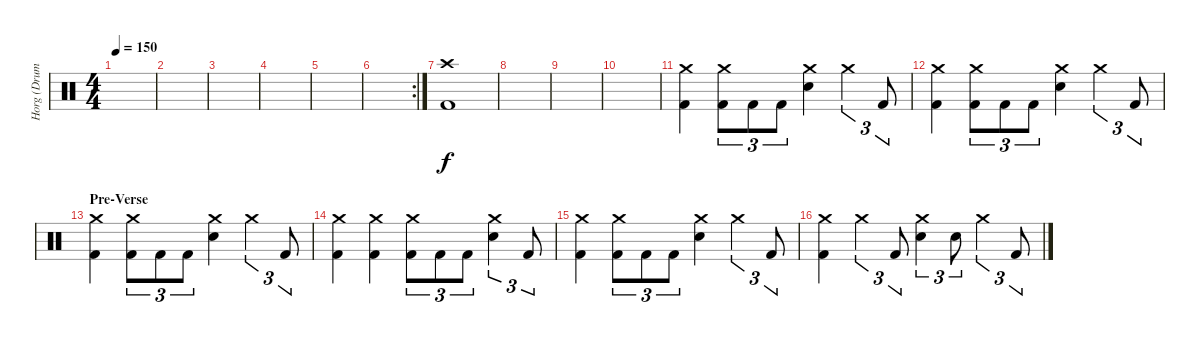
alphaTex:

\track ("Horg (Drums)" "Horg (Drum") {instrument percussion}
\staff {score}
\articulation defaults
\ts (4 4)
\tempo 150
\clef neutral
\ks c
|
|
|
|
|
\rc 2
|
("Crash high (hit)" "Kick (hit) 2").1 |
|
|
|
("Crash medium (hit)" "Kick (hit) 2").4 ("Crash medium (hit)" "Kick (hit) 2").8{tu (3 2)} "Kick (hit) 2".8{tu (3 2)} "Kick (hit) 2".8{tu (3 2)} ("Crash medium (hit)" "Electric Snare (hit)").4 "Crash medium (hit)".4{tu (3 2)} "Kick (hit) 2".8{tu (3 2)} |
("Crash medium (hit)" "Kick (hit) 2").4 ("Crash medium (hit)" "Kick (hit) 2").8{tu (3 2)} "Kick (hit) 2".8{tu (3 2)} "Kick (hit) 2".8{tu (3 2)} ("Crash medium (hit)" "Electric Snare (hit)").4 "Crash medium (hit)".4{tu (3 2)} "Kick (hit) 2".8{tu (3 2)} |
\section ("" "Pre-Verse")
("Crash medium (hit)" "Kick (hit) 2").4 ("Crash medium (hit)" "Kick (hit) 2").8{tu (3 2)} "Kick (hit) 2".8{tu (3 2)} "Kick (hit) 2".8{tu (3 2)} ("Crash medium (hit)" "Electric Snare (hit)").4 "Crash medium (hit)".4{tu (3 2)} "Kick (hit) 2".8{tu (3 2)} |
("Crash medium (hit)" "Kick (hit) 2").4 ("Crash medium (hit)" "Kick (hit) 2").4 ("Crash medium (hit)" "Kick (hit) 2").8{tu (3 2)} "Kick (hit) 2".8{tu (3 2)} "Kick (hit) 2".8{tu (3 2)} ("Crash medium (hit)" "Electric Snare (hit)").4{tu (3 2)} "Kick (hit) 2".8{tu (3 2)} |
("Crash medium (hit)" "Kick (hit) 2").4 ("Crash medium (hit)" "Kick (hit) 2").8{tu (3 2)} "Kick (hit) 2".8{tu (3 2)} "Kick (hit) 2".8{tu (3 2)} ("Crash medium (hit)" "Electric Snare (hit)").4 "Crash medium (hit)".4{tu (3 2)} "Kick (hit) 2".8{tu (3 2)} |
("Crash medium (hit)" "Kick (hit) 2").4 "Crash medium (hit)".4{tu (3 2)} "Kick (hit) 2".8{tu (3 2)} ("Crash medium (hit)" "Electric Snare (hit)").4{tu (3 2)} "Electric Snare (hit)".8{tu (3 2)} "Crash medium (hit)".4{tu (3 2)} "Kick (hit) 2".8{tu (3 2)}
